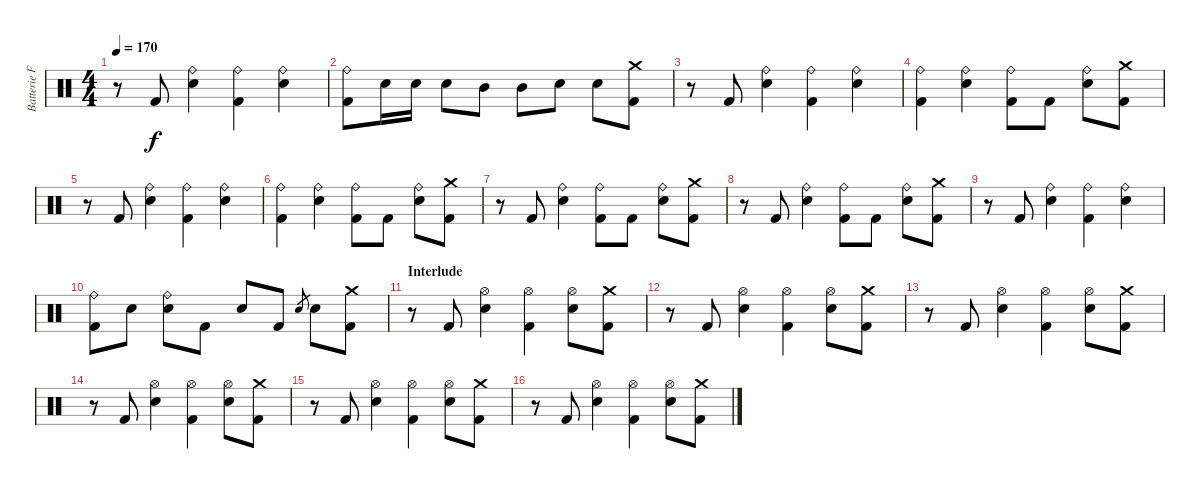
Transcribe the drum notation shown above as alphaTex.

\track ("Batterie Franck" "Batterie F") {instrument percussion}
\staff {score}
\articulation defaults
\ts (4 4)
\tempo 170
\clef neutral
\ks c
r.8{dy f} "Kick (hit) 2".8 ("Ride (bell)" "Snare (hit) 2").4 ("Ride (bell)" "Kick (hit) 2").4 ("Ride (bell)" "Snare (hit) 2").4 |
("Ride (bell)" "Kick (hit) 2").8 "Snare (hit) 2".16 "Snare (hit) 2".16 "Snare (hit) 2".8 "Mid Tom (hit)".8 "Mid Tom (hit)".8 "Snare (hit) 2".8 "Snare (hit) 2".8 ("Crash medium (hit)" "Kick (hit) 2").8 |
r.8 "Kick (hit) 2".8 ("Ride (bell)" "Snare (hit) 2").4 ("Ride (bell)" "Kick (hit) 2").4 ("Ride (bell)" "Snare (hit) 2").4 |
("Ride (bell)" "Kick (hit) 2").4 ("Ride (bell)" "Snare (hit) 2").4 ("Ride (bell)" "Kick (hit) 2").8 "Kick (hit) 2".8 ("Ride (bell)" "Snare (hit) 2").8 ("Crash medium (hit)" "Kick (hit) 2").8 |
r.8 "Kick (hit) 2".8 ("Ride (bell)" "Snare (hit) 2").4 ("Ride (bell)" "Kick (hit) 2").4 ("Ride (bell)" "Snare (hit) 2").4 |
("Ride (bell)" "Kick (hit) 2").4 ("Ride (bell)" "Snare (hit) 2").4 ("Ride (bell)" "Kick (hit) 2").8 "Kick (hit) 2".8 ("Ride (bell)" "Snare (hit) 2").8 ("Crash medium (hit)" "Kick (hit) 2").8 |
r.8 "Kick (hit) 2".8 ("Ride (bell)" "Snare (hit) 2").4 ("Ride (bell)" "Kick (hit) 2").8 "Kick (hit) 2".8 ("Ride (bell)" "Snare (hit) 2").8 ("Crash medium (hit)" "Kick (hit) 2").8 |
r.8 "Kick (hit) 2".8 ("Ride (bell)" "Snare (hit) 2").4 ("Ride (bell)" "Kick (hit) 2").8 "Kick (hit) 2".8 ("Ride (bell)" "Snare (hit) 2").8 ("Crash medium (hit)" "Kick (hit) 2").8 |
r.8 "Kick (hit) 2".8 ("Ride (bell)" "Snare (hit) 2").4 ("Ride (bell)" "Kick (hit) 2").4 ("Ride (bell)" "Snare (hit) 2").4 |
("Ride (bell)" "Kick (hit) 2").8 "Snare (hit) 2".8 ("Ride (bell)" "Snare (hit) 2").8 "Kick (hit) 2".8 "Snare (hit) 2".8 "Kick (hit) 2".8 "Snare (hit) 2".8{gr} "Snare (hit) 2".8 ("Crash medium (hit)" "Kick (hit) 2").8 |
\section ("" "Interlude")
r.8 "Kick (hit) 2".8 ("Hi-Hat (open)" "Snare (hit) 2").4 ("Hi-Hat (open)" "Kick (hit) 2").4 ("Hi-Hat (open)" "Snare (hit) 2").8 ("Crash medium (hit)" "Kick (hit) 2").8 |
r.8 "Kick (hit) 2".8 ("Hi-Hat (open)" "Snare (hit) 2").4 ("Hi-Hat (open)" "Kick (hit) 2").4 ("Hi-Hat (open)" "Snare (hit) 2").8 ("Crash medium (hit)" "Kick (hit) 2").8 |
r.8 "Kick (hit) 2".8 ("Hi-Hat (open)" "Snare (hit) 2").4 ("Hi-Hat (open)" "Kick (hit) 2").4 ("Hi-Hat (open)" "Snare (hit) 2").8 ("Crash medium (hit)" "Kick (hit) 2").8 |
r.8 "Kick (hit) 2".8 ("Hi-Hat (open)" "Snare (hit) 2").4 ("Hi-Hat (open)" "Kick (hit) 2").4 ("Hi-Hat (open)" "Snare (hit) 2").8 ("Crash medium (hit)" "Kick (hit) 2").8 |
r.8 "Kick (hit) 2".8 ("Hi-Hat (open)" "Snare (hit) 2").4 ("Hi-Hat (open)" "Kick (hit) 2").4 ("Hi-Hat (open)" "Snare (hit) 2").8 ("Crash medium (hit)" "Kick (hit) 2").8 |
r.8 "Kick (hit) 2".8 ("Hi-Hat (open)" "Snare (hit) 2").4 ("Hi-Hat (open)" "Kick (hit) 2").4 ("Hi-Hat (open)" "Snare (hit) 2").8 ("Crash medium (hit)" "Kick (hit) 2").8
